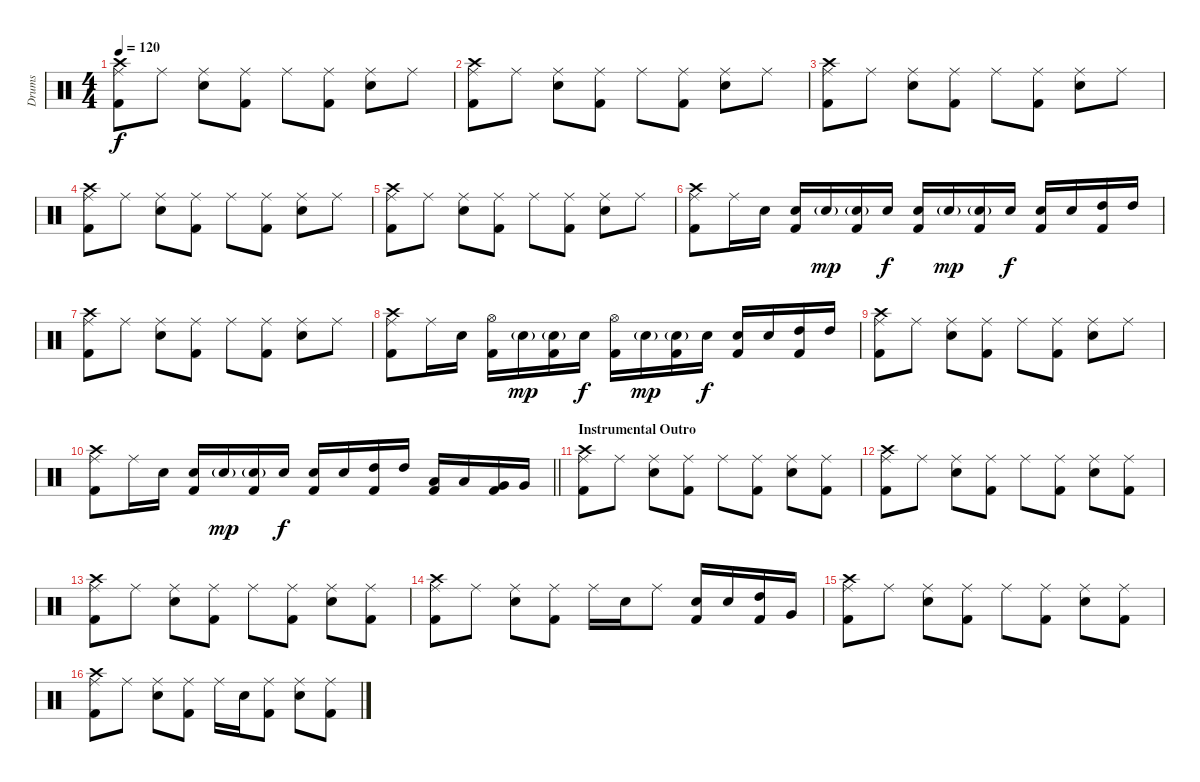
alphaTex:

\track ("Drums" "Drums") {instrument percussion}
\staff {score}
\articulation defaults
\ts (4 4)
\tempo 120
\clef neutral
\ks c
("Kick (hit) 2" "Ride (middle)" "Crash high (hit)").8{dy f} "Ride (middle)".8 ("Electric Snare (hit)" "Ride (middle)").8 ("Kick (hit) 2" "Ride (middle)").8 "Ride (middle)".8 ("Kick (hit) 2" "Ride (middle)").8 ("Electric Snare (hit)" "Ride (middle)").8 "Ride (middle)".8 |
("Kick (hit) 2" "Ride (middle)" "Crash high (hit)").8 "Ride (middle)".8 ("Electric Snare (hit)" "Ride (middle)").8 ("Kick (hit) 2" "Ride (middle)").8 "Ride (middle)".8 ("Kick (hit) 2" "Ride (middle)").8 ("Electric Snare (hit)" "Ride (middle)").8 "Ride (middle)".8 |
("Kick (hit) 2" "Ride (middle)" "Crash high (hit)").8 "Ride (middle)".8 ("Electric Snare (hit)" "Ride (middle)").8 ("Kick (hit) 2" "Ride (middle)").8 "Ride (middle)".8 ("Kick (hit) 2" "Ride (middle)").8 ("Electric Snare (hit)" "Ride (middle)").8 "Ride (middle)".8 |
("Kick (hit) 2" "Ride (middle)" "Crash high (hit)").8 "Ride (middle)".8 ("Electric Snare (hit)" "Ride (middle)").8 ("Kick (hit) 2" "Ride (middle)").8 "Ride (middle)".8 ("Kick (hit) 2" "Ride (middle)").8 ("Electric Snare (hit)" "Ride (middle)").8 "Ride (middle)".8 |
("Kick (hit) 2" "Ride (middle)" "Crash high (hit)").8 "Ride (middle)".8 ("Electric Snare (hit)" "Ride (middle)").8 ("Kick (hit) 2" "Ride (middle)").8 "Ride (middle)".8 ("Kick (hit) 2" "Ride (middle)").8 ("Electric Snare (hit)" "Ride (middle)").8 "Ride (middle)".8 |
("Kick (hit) 2" "Ride (middle)" "Crash high (hit)").8 "Ride (middle)".16 "Electric Snare (hit)".16 ("Kick (hit) 2" "Electric Snare (hit)").16 "Electric Snare (hit)"{g}.16{dy mp} ("Kick (hit) 2" "Electric Snare (hit)"{g}).16 "Electric Snare (hit)".16{dy f} ("Kick (hit) 2" "Electric Snare (hit)").16 "Electric Snare (hit)"{g}.16{dy mp} ("Kick (hit) 2" "Electric Snare (hit)"{g}).16 "Electric Snare (hit)".16{dy f} ("Kick (hit) 2" "Electric Snare (hit)").16 "Electric Snare (hit)".16 ("Kick (hit) 2" "High Tom (hit)").16 "High Tom (hit)".16 |
("Kick (hit) 2" "Ride (middle)" "Crash high (hit)").8 "Ride (middle)".8 ("Electric Snare (hit)" "Ride (middle)").8 ("Kick (hit) 2" "Ride (middle)").8 "Ride (middle)".8 ("Kick (hit) 2" "Ride (middle)").8 ("Electric Snare (hit)" "Ride (middle)").8 "Ride (middle)".8 |
("Kick (hit) 2" "Ride (middle)" "Crash high (hit)").8 "Ride (middle)".16 "Electric Snare (hit)".16 ("Kick (hit) 2" "Hi-Hat (open)").16 "Electric Snare (hit)"{g}.16{dy mp} ("Kick (hit) 2" "Electric Snare (hit)"{g}).16 "Electric Snare (hit)".16{dy f} ("Kick (hit) 2" "Hi-Hat (open)").16 "Electric Snare (hit)"{g}.16{dy mp} ("Kick (hit) 2" "Electric Snare (hit)"{g}).16 "Electric Snare (hit)".16{dy f} ("Kick (hit) 2" "Electric Snare (hit)").16 "Electric Snare (hit)".16 ("Kick (hit) 2" "High Tom (hit)").16 "High Tom (hit)".16 |
("Kick (hit) 2" "Ride (middle)" "Crash high (hit)").8 "Ride (middle)".8 ("Electric Snare (hit)" "Ride (middle)").8 ("Kick (hit) 2" "Ride (middle)").8 "Ride (middle)".8 ("Kick (hit) 2" "Ride (middle)").8 ("Electric Snare (hit)" "Ride (middle)").8 "Ride (middle)".8 |
\barLineRight lightlight
("Kick (hit) 2" "Ride (middle)" "Crash high (hit)").8 "Ride (middle)".16 "Electric Snare (hit)".16 ("Kick (hit) 2" "Electric Snare (hit)").16 "Electric Snare (hit)"{g}.16{dy mp} ("Kick (hit) 2" "Electric Snare (hit)"{g}).16 "Electric Snare (hit)".16{dy f} ("Kick (hit) 2" "Electric Snare (hit)").16 "Electric Snare (hit)".16 ("Kick (hit) 2" "High Tom (hit)").16 "High Tom (hit)".16 ("Kick (hit) 2" "Low Tom (hit)").16 "Low Tom (hit)".16 ("Kick (hit) 2" "Very Low Tom (hit)").16 "Very Low Tom (hit)".16 |
\section ("" "Instrumental Outro")
("Kick (hit) 2" "Ride (middle)" "Crash high (hit)").8 "Ride (middle)".8 ("Electric Snare (hit)" "Ride (middle)").8 ("Kick (hit) 2" "Ride (middle)").8 "Ride (middle)".8 ("Kick (hit) 2" "Ride (middle)").8 ("Electric Snare (hit)" "Ride (middle)").8 ("Kick (hit) 2" "Ride (middle)").8 |
("Kick (hit) 2" "Ride (middle)" "Crash high (hit)").8 "Ride (middle)".8 ("Electric Snare (hit)" "Ride (middle)").8 ("Kick (hit) 2" "Ride (middle)").8 "Ride (middle)".8 ("Kick (hit) 2" "Ride (middle)").8 ("Electric Snare (hit)" "Ride (middle)").8 ("Kick (hit) 2" "Ride (middle)").8 |
("Kick (hit) 2" "Ride (middle)" "Crash high (hit)").8 "Ride (middle)".8 ("Electric Snare (hit)" "Ride (middle)").8 ("Kick (hit) 2" "Ride (middle)").8 "Ride (middle)".8 ("Kick (hit) 2" "Ride (middle)").8 ("Electric Snare (hit)" "Ride (middle)").8 ("Kick (hit) 2" "Ride (middle)").8 |
("Kick (hit) 2" "Ride (middle)" "Crash high (hit)").8 "Ride (middle)".8 ("Electric Snare (hit)" "Ride (middle)").8 ("Kick (hit) 2" "Ride (middle)").8 "Ride (middle)".16 "Electric Snare (hit)".16 "Ride (middle)".8 ("Kick (hit) 2" "Electric Snare (hit)").16 "Electric Snare (hit)".16 ("Kick (hit) 2" "High Tom (hit)").16 "Very Low Tom (hit)".16 |
("Kick (hit) 2" "Ride (middle)" "Crash high (hit)").8 "Ride (middle)".8 ("Electric Snare (hit)" "Ride (middle)").8 ("Kick (hit) 2" "Ride (middle)").8 "Ride (middle)".8 ("Kick (hit) 2" "Ride (middle)").8 ("Electric Snare (hit)" "Ride (middle)").8 ("Kick (hit) 2" "Ride (middle)").8 |
("Kick (hit) 2" "Ride (middle)" "Crash high (hit)").8 "Ride (middle)".8 ("Electric Snare (hit)" "Ride (middle)").8 ("Kick (hit) 2" "Ride (middle)").8 "Ride (middle)".16 "Electric Snare (hit)".16 ("Kick (hit) 2" "Ride (middle)").8 ("Electric Snare (hit)" "Ride (middle)").8 ("Kick (hit) 2" "Ride (middle)").8
